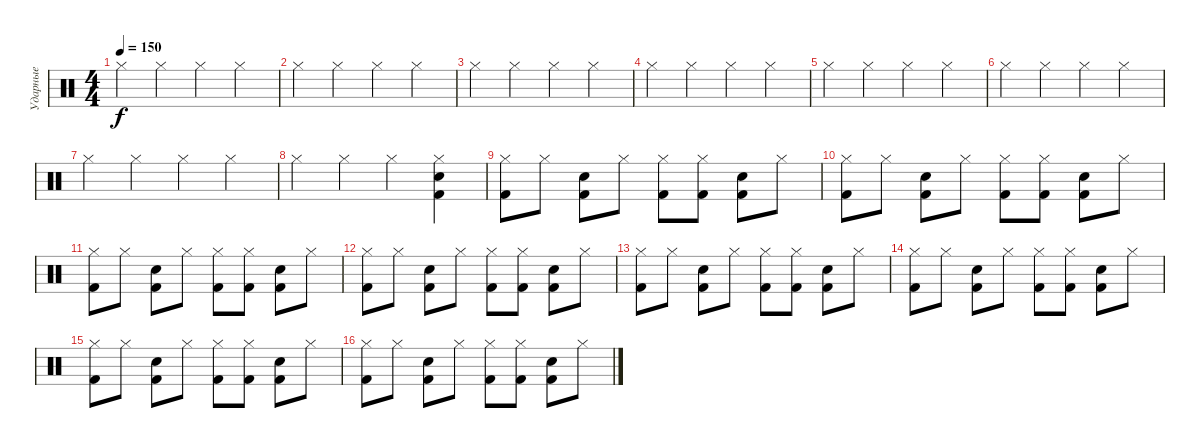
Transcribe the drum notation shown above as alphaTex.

\track ("Ударные" "Ударные") {instrument percussion}
\staff {score}
\articulation defaults
\ts (4 4)
\tempo 150
\clef neutral
\ks c "Hi-Hat (closed)".4{dy f} "Hi-Hat (closed)".4 "Hi-Hat (closed)".4 "Hi-Hat (closed)".4
|
"Hi-Hat (closed)".4 "Hi-Hat (closed)".4 "Hi-Hat (closed)".4 "Hi-Hat (closed)".4 |
"Hi-Hat (closed)".4 "Hi-Hat (closed)".4 "Hi-Hat (closed)".4 "Hi-Hat (closed)".4 |
"Hi-Hat (closed)".4 "Hi-Hat (closed)".4 "Hi-Hat (closed)".4 "Hi-Hat (closed)".4 |
"Hi-Hat (closed)".4 "Hi-Hat (closed)".4 "Hi-Hat (closed)".4 "Hi-Hat (closed)".4 |
"Hi-Hat (closed)".4 "Hi-Hat (closed)".4 "Hi-Hat (closed)".4 "Hi-Hat (closed)".4 |
"Hi-Hat (closed)".4 "Hi-Hat (closed)".4 "Hi-Hat (closed)".4 "Hi-Hat (closed)".4 |
"Hi-Hat (closed)".4 "Hi-Hat (closed)".4 "Hi-Hat (closed)".4 ("Hi-Hat (closed)" "Snare (hit) 2" "Kick (hit) 2").4 |
("Kick (hit) 2" "Hi-Hat (closed)").8 "Hi-Hat (closed)".8 ("Kick (hit) 2" "Snare (hit) 2").8 "Hi-Hat (closed)".8 ("Kick (hit) 2" "Hi-Hat (closed)").8 ("Kick (hit) 2" "Hi-Hat (closed)").8 ("Kick (hit) 2" "Snare (hit) 2").8 "Hi-Hat (closed)".8 |
("Kick (hit) 2" "Hi-Hat (closed)").8 "Hi-Hat (closed)".8 ("Kick (hit) 2" "Snare (hit) 2").8 "Hi-Hat (closed)".8 ("Kick (hit) 2" "Hi-Hat (closed)").8 ("Kick (hit) 2" "Hi-Hat (closed)").8 ("Kick (hit) 2" "Snare (hit) 2").8 "Hi-Hat (closed)".8 |
("Kick (hit) 2" "Hi-Hat (closed)").8 "Hi-Hat (closed)".8 ("Kick (hit) 2" "Snare (hit) 2").8 "Hi-Hat (closed)".8 ("Kick (hit) 2" "Hi-Hat (closed)").8 ("Kick (hit) 2" "Hi-Hat (closed)").8 ("Kick (hit) 2" "Snare (hit) 2").8 "Hi-Hat (closed)".8 |
("Kick (hit) 2" "Hi-Hat (closed)").8 "Hi-Hat (closed)".8 ("Kick (hit) 2" "Snare (hit) 2").8 "Hi-Hat (closed)".8 ("Kick (hit) 2" "Hi-Hat (closed)").8 ("Kick (hit) 2" "Hi-Hat (closed)").8 ("Kick (hit) 2" "Snare (hit) 2").8 "Hi-Hat (closed)".8 |
("Kick (hit) 2" "Hi-Hat (closed)").8 "Hi-Hat (closed)".8 ("Kick (hit) 2" "Snare (hit) 2").8 "Hi-Hat (closed)".8 ("Kick (hit) 2" "Hi-Hat (closed)").8 ("Kick (hit) 2" "Hi-Hat (closed)").8 ("Kick (hit) 2" "Snare (hit) 2").8 "Hi-Hat (closed)".8 |
("Kick (hit) 2" "Hi-Hat (closed)").8 "Hi-Hat (closed)".8 ("Kick (hit) 2" "Snare (hit) 2").8 "Hi-Hat (closed)".8 ("Kick (hit) 2" "Hi-Hat (closed)").8 ("Kick (hit) 2" "Hi-Hat (closed)").8 ("Kick (hit) 2" "Snare (hit) 2").8 "Hi-Hat (closed)".8 |
("Kick (hit) 2" "Hi-Hat (closed)").8 "Hi-Hat (closed)".8 ("Kick (hit) 2" "Snare (hit) 2").8 "Hi-Hat (closed)".8 ("Kick (hit) 2" "Hi-Hat (closed)").8 ("Kick (hit) 2" "Hi-Hat (closed)").8 ("Kick (hit) 2" "Snare (hit) 2").8 "Hi-Hat (closed)".8 |
("Kick (hit) 2" "Hi-Hat (closed)").8 "Hi-Hat (closed)".8 ("Kick (hit) 2" "Snare (hit) 2").8 "Hi-Hat (closed)".8 ("Kick (hit) 2" "Hi-Hat (closed)").8 ("Kick (hit) 2" "Hi-Hat (closed)").8 ("Kick (hit) 2" "Snare (hit) 2").8 "Hi-Hat (closed)".8
